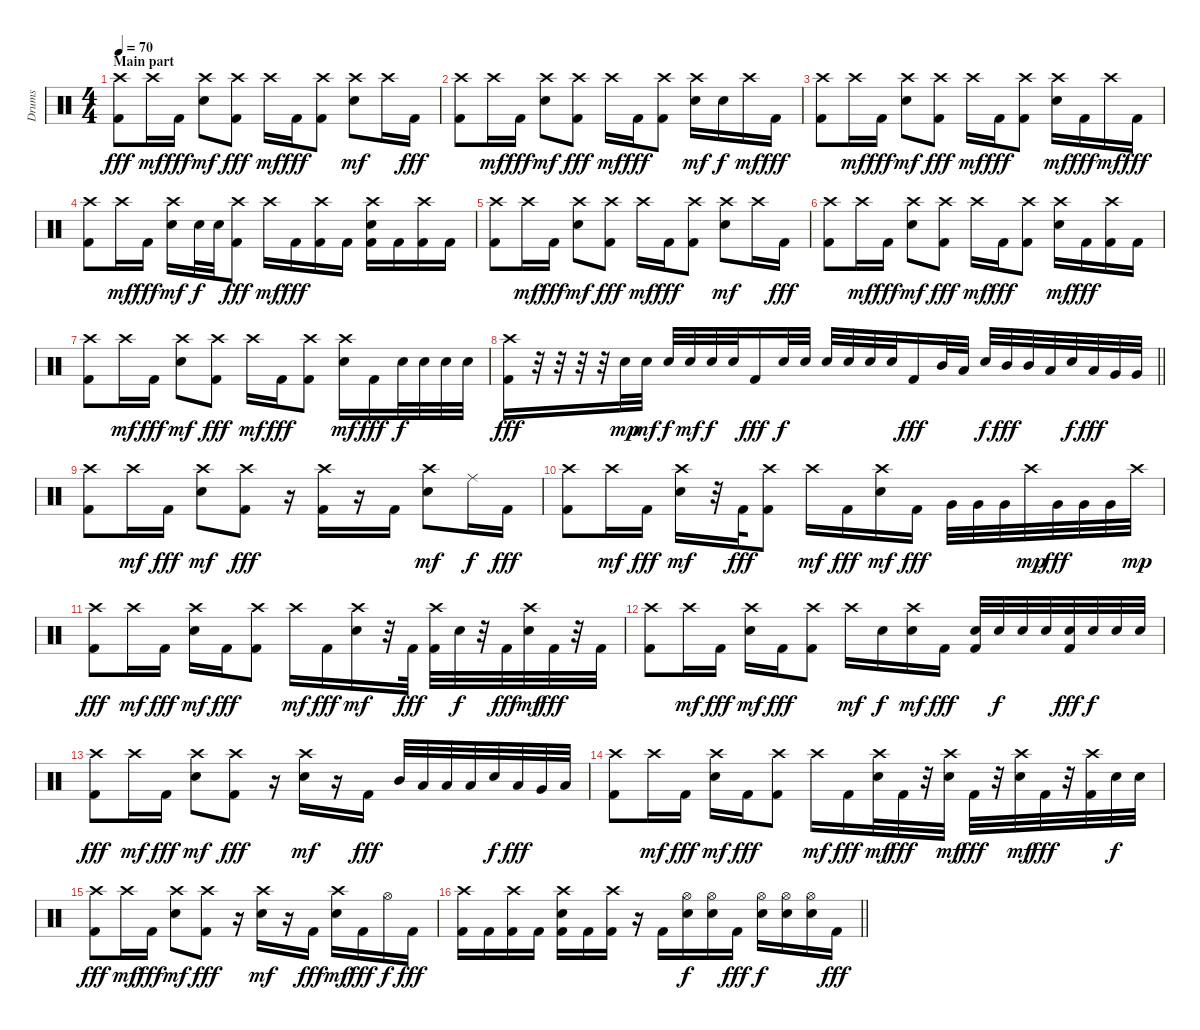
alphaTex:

\track ("Drums" "Drums") {instrument percussion}
\staff {score}
\articulation defaults
\ts (4 4)
\section ("" "Main part")
\tempo 70
\clef neutral
\ks c
("Crash high (hit)" "Kick (hit) 2").8{dy fff} "Crash high (hit)".16{dy mf} "Kick (hit) 2".16{dy fff} ("Crash high (hit)" "Snare (hit) 2").8{dy mf} ("Crash high (hit)" "Kick (hit) 2").8{dy fff} "Crash high (hit)".16{dy mf} "Kick (hit) 2".16{dy fff} ("Crash high (hit)" "Kick (hit) 2").8 ("Crash high (hit)" "Snare (hit) 2").8{dy mf} "Crash high (hit)".16 "Kick (hit) 2".16{dy fff} |
("Crash high (hit)" "Kick (hit) 2").8 "Crash high (hit)".16{dy mf} "Kick (hit) 2".16{dy fff} ("Crash high (hit)" "Snare (hit) 2").8{dy mf} ("Crash high (hit)" "Kick (hit) 2").8{dy fff} "Crash high (hit)".16{dy mf} "Kick (hit) 2".16{dy fff} ("Crash high (hit)" "Kick (hit) 2").8 ("Crash high (hit)" "Snare (hit) 2").16{dy mf} "Snare (hit) 2".16{dy f} "Crash high (hit)".16{dy mf} "Kick (hit) 2".16{dy fff} |
("Crash high (hit)" "Kick (hit) 2").8 "Crash high (hit)".16{dy mf} "Kick (hit) 2".16{dy fff} ("Crash high (hit)" "Snare (hit) 2").8{dy mf} ("Crash high (hit)" "Kick (hit) 2").8{dy fff} "Crash high (hit)".16{dy mf} "Kick (hit) 2".16{dy fff} ("Crash high (hit)" "Kick (hit) 2").8 ("Crash high (hit)" "Snare (hit) 2").16{dy mf} "Kick (hit) 2".16{dy fff} "Crash high (hit)".16{dy mf} "Kick (hit) 2".16{dy fff} |
("Crash high (hit)" "Kick (hit) 2").8 "Crash high (hit)".16{dy mf} "Kick (hit) 2".16{dy fff} ("Crash high (hit)" "Snare (hit) 2").16{dy mf} "Snare (hit) 2".32{dy f} "Snare (hit) 2".32 ("Crash high (hit)" "Kick (hit) 2").8{dy fff} "Crash high (hit)".16{dy mf} "Kick (hit) 2".16{dy fff} ("Crash high (hit)" "Kick (hit) 2").16 "Kick (hit) 2".16 ("Crash high (hit)" "Snare (hit) 2" "Kick (hit) 2").16 "Kick (hit) 2".16 ("Crash high (hit)" "Kick (hit) 2").16 "Kick (hit) 2".16 |
("Crash high (hit)" "Kick (hit) 2").8 "Crash high (hit)".16{dy mf} "Kick (hit) 2".16{dy fff} ("Crash high (hit)" "Snare (hit) 2").8{dy mf} ("Crash high (hit)" "Kick (hit) 2").8{dy fff} "Crash high (hit)".16{dy mf} "Kick (hit) 2".16{dy fff} ("Crash high (hit)" "Kick (hit) 2").8 ("Crash high (hit)" "Snare (hit) 2").8{dy mf} "Crash high (hit)".16 "Kick (hit) 2".16{dy fff} |
("Crash high (hit)" "Kick (hit) 2").8 "Crash high (hit)".16{dy mf} "Kick (hit) 2".16{dy fff} ("Crash high (hit)" "Snare (hit) 2").8{dy mf} ("Crash high (hit)" "Kick (hit) 2").8{dy fff} "Crash high (hit)".16{dy mf} "Kick (hit) 2".16{dy fff} ("Crash high (hit)" "Kick (hit) 2").8 ("Crash high (hit)" "Snare (hit) 2").16{dy mf} "Kick (hit) 2".16{dy fff} ("Crash high (hit)" "Kick (hit) 2").16 "Kick (hit) 2".16 |
("Crash high (hit)" "Kick (hit) 2").8 "Crash high (hit)".16{dy mf} "Kick (hit) 2".16{dy fff} ("Crash high (hit)" "Snare (hit) 2").8{dy mf} ("Crash high (hit)" "Kick (hit) 2").8{dy fff} "Crash high (hit)".16{dy mf} "Kick (hit) 2".16{dy fff} ("Crash high (hit)" "Kick (hit) 2").8 ("Crash high (hit)" "Snare (hit) 2").16{dy mf} "Kick (hit) 2".16{dy fff} "Snare (hit) 2".32{dy f} "Snare (hit) 2".32 "Snare (hit) 2".32 "Snare (hit) 2".32 |
\barLineRight lightlight
("Crash high (hit)" "Kick (hit) 2").16{dy fff} r.32 r.32 r.32 r.32 "Snare (hit) 2".32{dy mp} "Snare (hit) 2".32{dy mf} "Snare (hit) 2".32{dy f} "Snare (hit) 2".32{dy mf} "Snare (hit) 2".32{dy f} "Snare (hit) 2".32 "Kick (hit) 2".16{dy fff} "Snare (hit) 2".32{dy f} "Snare (hit) 2".32 "Snare (hit) 2".32 "Snare (hit) 2".32 "Snare (hit) 2".32 "Snare (hit) 2".32 "Kick (hit) 2".16{dy fff} "Mid Tom (hit)".32 "Low Tom (hit)".32 "Snare (hit) 2".32{dy f} "Mid Tom (hit)".32{dy fff} "Mid Tom (hit)".32 "Low Tom (hit)".32 "Snare (hit) 2".32{dy f} "Low Tom (hit)".32{dy fff} "Very Low Tom (hit)".32 "Very Low Tom (hit)".32 |
("Crash high (hit)" "Kick (hit) 2").8 "Crash high (hit)".16{dy mf} "Kick (hit) 2".16{dy fff} ("Crash high (hit)" "Snare (hit) 2").8{dy mf} ("Crash high (hit)" "Kick (hit) 2").8{dy fff} r.16 ("Crash high (hit)" "Kick (hit) 2").16 r.16 "Kick (hit) 2".16 ("Crash high (hit)" "Snare (hit) 2").8{dy mf} "Ride (middle)".16{dy f} "Kick (hit) 2".16{dy fff} |
("Crash high (hit)" "Kick (hit) 2").8 "Crash high (hit)".16{dy mf} "Kick (hit) 2".16{dy fff} ("Crash high (hit)" "Snare (hit) 2").16{dy mf} r.32 "Kick (hit) 2".32{dy fff} ("Crash high (hit)" "Kick (hit) 2").8 "Crash high (hit)".16{dy mf} "Kick (hit) 2".16{dy fff} ("Crash high (hit)" "Snare (hit) 2").16{dy mf} "Kick (hit) 2".16{dy fff} "Very Low Tom (hit)".32 "Very Low Tom (hit)".32 "Very Low Tom (hit)".32 "Crash high (hit)".32{dy mp} "Very Low Tom (hit)".32{dy fff} "Very Low Tom (hit)".32 "Very Low Tom (hit)".32 "Crash high (hit)".32{dy mp} |
("Crash high (hit)" "Kick (hit) 2").8{dy fff} "Crash high (hit)".16{dy mf} "Kick (hit) 2".16{dy fff} ("Crash high (hit)" "Snare (hit) 2").16{dy mf} "Kick (hit) 2".16{dy fff} ("Crash high (hit)" "Kick (hit) 2").8 "Crash high (hit)".16{dy mf} "Kick (hit) 2".16{dy fff} ("Crash high (hit)" "Snare (hit) 2").16{dy mf} r.32 "Kick (hit) 2".32{dy fff} ("Crash high (hit)" "Kick (hit) 2").32 "Snare (hit) 2".32{dy f} r.32 "Kick (hit) 2".32{dy fff} ("Crash high (hit)" "Snare (hit) 2").32{dy mf} "Kick (hit) 2".32{dy fff} r.32 "Kick (hit) 2".32 |
("Crash high (hit)" "Kick (hit) 2").8 "Crash high (hit)".16{dy mf} "Kick (hit) 2".16{dy fff} ("Crash high (hit)" "Snare (hit) 2").16{dy mf} "Kick (hit) 2".16{dy fff} ("Crash high (hit)" "Kick (hit) 2").8 "Crash high (hit)".16{dy mf} "Snare (hit) 2".16{dy f} ("Crash high (hit)" "Snare (hit) 2").16{dy mf} "Kick (hit) 2".16{dy fff} ("Snare (hit) 2" "Kick (hit) 2").32 "Snare (hit) 2".32{dy f} "Snare (hit) 2".32 "Snare (hit) 2".32 ("Snare (hit) 2" "Kick (hit) 2").32{dy fff} "Snare (hit) 2".32{dy f} "Snare (hit) 2".32 "Snare (hit) 2".32 |
("Crash high (hit)" "Kick (hit) 2").8{dy fff} "Crash high (hit)".16{dy mf} "Kick (hit) 2".16{dy fff} ("Crash high (hit)" "Snare (hit) 2").8{dy mf} ("Crash high (hit)" "Kick (hit) 2").8{dy fff} r.16 ("Crash high (hit)" "Snare (hit) 2").16{dy mf} r.16 "Kick (hit) 2".16{dy fff} "Mid Tom (hit)".32 "Low Tom (hit)".32 "Low Tom (hit)".32 "Low Tom (hit)".32 "Snare (hit) 2".32{dy f} "Low Tom (hit)".32{dy fff} "Very Low Tom (hit)".32 "Low Floor Tom (hit)".32 |
("Crash high (hit)" "Kick (hit) 2").8 "Crash high (hit)".16{dy mf} "Kick (hit) 2".16{dy fff} ("Crash high (hit)" "Snare (hit) 2").16{dy mf} "Kick (hit) 2".16{dy fff} ("Crash high (hit)" "Kick (hit) 2").8 "Crash high (hit)".16{dy mf} "Kick (hit) 2".16{dy fff} ("Crash high (hit)" "Snare (hit) 2").32{dy mf} "Kick (hit) 2".32{dy fff} r.32 ("Crash high (hit)" "Snare (hit) 2").32{dy mf} "Kick (hit) 2".32{dy fff} r.32 ("Crash high (hit)" "Snare (hit) 2").32{dy mf} "Kick (hit) 2".32{dy fff} r.32 ("Crash high (hit)" "Kick (hit) 2").32 "Snare (hit) 2".32{dy f} "Snare (hit) 2".32 |
("Crash high (hit)" "Kick (hit) 2").8{dy fff} "Crash high (hit)".16{dy mf} "Kick (hit) 2".16{dy fff} ("Crash high (hit)" "Snare (hit) 2").8{dy mf} ("Crash high (hit)" "Kick (hit) 2").8{dy fff} r.16 ("Crash high (hit)" "Snare (hit) 2").16{dy mf} r.16 "Kick (hit) 2".16{dy fff} ("Crash high (hit)" "Snare (hit) 2").16{dy mf} "Kick (hit) 2".16{dy fff} "Hi-Hat (open)".16{dy f} "Kick (hit) 2".16{dy fff} |
\barLineRight lightlight
("Crash high (hit)" "Kick (hit) 2").16 "Kick (hit) 2".16 ("Crash high (hit)" "Kick (hit) 2").16 "Kick (hit) 2".16 ("Crash high (hit)" "Snare (hit) 2" "Kick (hit) 2").16 "Kick (hit) 2".16 ("Crash high (hit)" "Kick (hit) 2").16 r.16 "Kick (hit) 2".16 ("Hi-Hat (open)" "Snare (hit) 2").16{dy f} ("Hi-Hat (open)" "Snare (hit) 2").16 "Kick (hit) 2".16{dy fff} ("Hi-Hat (open)" "Snare (hit) 2").16{dy f} ("Hi-Hat (open)" "Snare (hit) 2").16 ("Hi-Hat (open)" "Snare (hit) 2").16 "Kick (hit) 2".16{dy fff}
